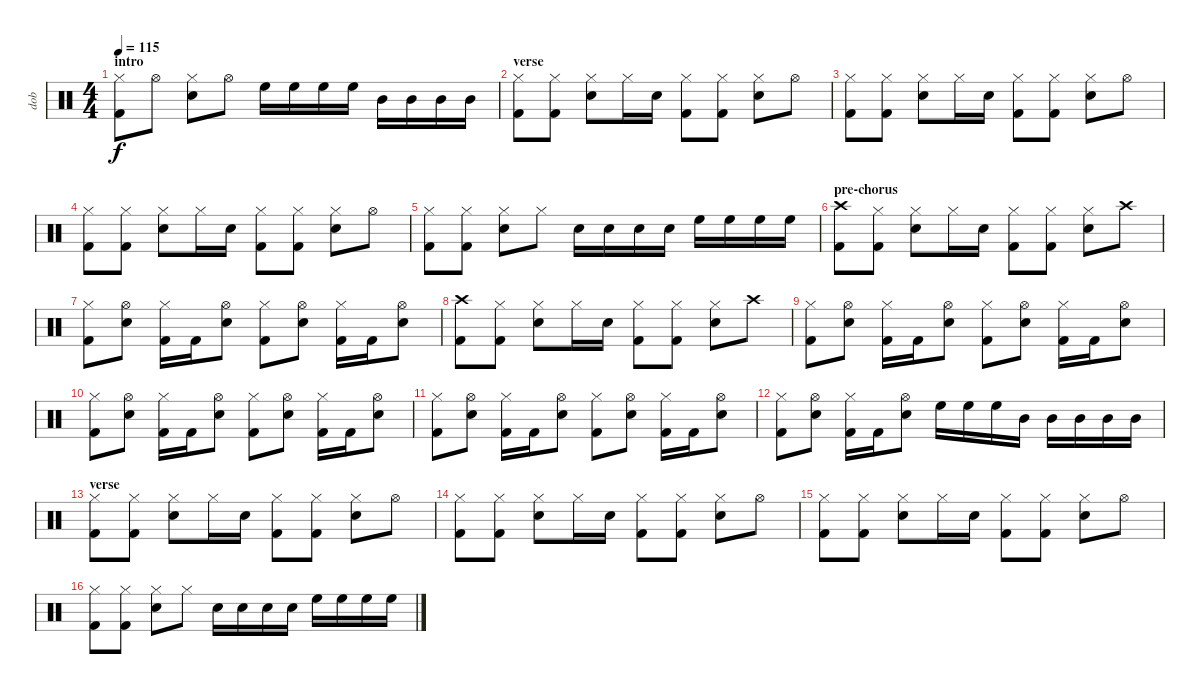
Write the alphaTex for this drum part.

\track ("dob" "dob") {instrument percussion}
\staff {score}
\articulation defaults
\ts (4 4)
\section ("" "intro")
\tempo 115
\clef neutral
\ks c
("Hi-Hat (closed)" "Kick (hit) 2").8{dy f} "Hi-Hat (open)".8 ("Hi-Hat (closed)" "Snare (hit) 2").8 "Hi-Hat (open)".8 "High Floor Tom (hit)".16 "High Floor Tom (hit)".16 "High Floor Tom (hit)".16 "High Floor Tom (hit)".16 "Mid Tom (hit)".16 "Mid Tom (hit)".16 "Mid Tom (hit)".16 "Mid Tom (hit)".16 |
\section ("" "verse")
("Hi-Hat (closed)" "Kick (hit) 2").8 ("Hi-Hat (closed)" "Kick (hit) 2").8 ("Hi-Hat (closed)" "Snare (hit) 2").8 "Hi-Hat (closed)".16 "Snare (hit) 2".16 ("Hi-Hat (closed)" "Kick (hit) 2").8 ("Hi-Hat (closed)" "Kick (hit) 2").8 ("Hi-Hat (closed)" "Snare (hit) 2").8 "Hi-Hat (open)".8 |
("Hi-Hat (closed)" "Kick (hit) 2").8 ("Hi-Hat (closed)" "Kick (hit) 2").8 ("Hi-Hat (closed)" "Snare (hit) 2").8 "Hi-Hat (closed)".16 "Snare (hit) 2".16 ("Hi-Hat (closed)" "Kick (hit) 2").8 ("Hi-Hat (closed)" "Kick (hit) 2").8 ("Hi-Hat (closed)" "Snare (hit) 2").8 "Hi-Hat (open)".8 |
("Hi-Hat (closed)" "Kick (hit) 2").8 ("Hi-Hat (closed)" "Kick (hit) 2").8 ("Hi-Hat (closed)" "Snare (hit) 2").8 "Hi-Hat (closed)".16 "Snare (hit) 2".16 ("Hi-Hat (closed)" "Kick (hit) 2").8 ("Hi-Hat (closed)" "Kick (hit) 2").8 ("Hi-Hat (closed)" "Snare (hit) 2").8 "Hi-Hat (open)".8 |
("Hi-Hat (closed)" "Kick (hit) 2").8 ("Hi-Hat (closed)" "Kick (hit) 2").8 ("Hi-Hat (closed)" "Snare (hit) 2").8 "Hi-Hat (closed)".8 "Snare (hit) 2".16 "Snare (hit) 2".16 "Snare (hit) 2".16 "Snare (hit) 2".16 "High Floor Tom (hit)".16 "High Floor Tom (hit)".16 "High Floor Tom (hit)".16 "High Floor Tom (hit)".16 |
\section ("" "pre-chorus")
("Crash high (hit)" "Kick (hit) 2").8 ("Hi-Hat (closed)" "Kick (hit) 2").8 ("Hi-Hat (closed)" "Snare (hit) 2").8 "Hi-Hat (closed)".16 "Snare (hit) 2".16 ("Hi-Hat (closed)" "Kick (hit) 2").8 ("Hi-Hat (closed)" "Kick (hit) 2").8 ("Hi-Hat (closed)" "Snare (hit) 2").8 "Crash high (hit)".8 |
("Hi-Hat (closed)" "Kick (hit) 2").8 ("Hi-Hat (open)" "Snare (hit) 2").8 ("Hi-Hat (closed)" "Kick (hit) 2").16 "Kick (hit) 2".16 ("Hi-Hat (open)" "Snare (hit) 2").8 ("Hi-Hat (closed)" "Kick (hit) 2").8 ("Hi-Hat (open)" "Snare (hit) 2").8 ("Hi-Hat (closed)" "Kick (hit) 2").16 "Kick (hit) 2".16 ("Hi-Hat (open)" "Snare (hit) 2").8 |
("Crash high (hit)" "Kick (hit) 2").8 ("Hi-Hat (closed)" "Kick (hit) 2").8 ("Hi-Hat (closed)" "Snare (hit) 2").8 "Hi-Hat (closed)".16 "Snare (hit) 2".16 ("Hi-Hat (closed)" "Kick (hit) 2").8 ("Hi-Hat (closed)" "Kick (hit) 2").8 ("Hi-Hat (closed)" "Snare (hit) 2").8 "Crash high (hit)".8 |
("Hi-Hat (closed)" "Kick (hit) 2").8 ("Hi-Hat (open)" "Snare (hit) 2").8 ("Hi-Hat (closed)" "Kick (hit) 2").16 "Kick (hit) 2".16 ("Hi-Hat (open)" "Snare (hit) 2").8 ("Hi-Hat (closed)" "Kick (hit) 2").8 ("Hi-Hat (open)" "Snare (hit) 2").8 ("Hi-Hat (closed)" "Kick (hit) 2").16 "Kick (hit) 2".16 ("Hi-Hat (open)" "Snare (hit) 2").8 |
("Hi-Hat (closed)" "Kick (hit) 2").8 ("Hi-Hat (open)" "Snare (hit) 2").8 ("Hi-Hat (closed)" "Kick (hit) 2").16 "Kick (hit) 2".16 ("Hi-Hat (open)" "Snare (hit) 2").8 ("Hi-Hat (closed)" "Kick (hit) 2").8 ("Hi-Hat (open)" "Snare (hit) 2").8 ("Hi-Hat (closed)" "Kick (hit) 2").16 "Kick (hit) 2".16 ("Hi-Hat (open)" "Snare (hit) 2").8 |
("Hi-Hat (closed)" "Kick (hit) 2").8 ("Hi-Hat (open)" "Snare (hit) 2").8 ("Hi-Hat (closed)" "Kick (hit) 2").16 "Kick (hit) 2".16 ("Hi-Hat (open)" "Snare (hit) 2").8 ("Hi-Hat (closed)" "Kick (hit) 2").8 ("Hi-Hat (open)" "Snare (hit) 2").8 ("Hi-Hat (closed)" "Kick (hit) 2").16 "Kick (hit) 2".16 ("Hi-Hat (open)" "Snare (hit) 2").8 |
("Hi-Hat (closed)" "Kick (hit) 2").8 ("Hi-Hat (open)" "Snare (hit) 2").8 ("Hi-Hat (closed)" "Kick (hit) 2").16 "Kick (hit) 2".16 ("Hi-Hat (open)" "Snare (hit) 2").8 "High Floor Tom (hit)".16 "High Floor Tom (hit)".16 "High Floor Tom (hit)".16 "Mid Tom (hit)".16 "Mid Tom (hit)".16 "Mid Tom (hit)".16 "Mid Tom (hit)".16 "Mid Tom (hit)".16 |
\section ("" "verse")
("Hi-Hat (closed)" "Kick (hit) 2").8 ("Hi-Hat (closed)" "Kick (hit) 2").8 ("Hi-Hat (closed)" "Snare (hit) 2").8 "Hi-Hat (closed)".16 "Snare (hit) 2".16 ("Hi-Hat (closed)" "Kick (hit) 2").8 ("Hi-Hat (closed)" "Kick (hit) 2").8 ("Hi-Hat (closed)" "Snare (hit) 2").8 "Hi-Hat (open)".8 |
("Hi-Hat (closed)" "Kick (hit) 2").8 ("Hi-Hat (closed)" "Kick (hit) 2").8 ("Hi-Hat (closed)" "Snare (hit) 2").8 "Hi-Hat (closed)".16 "Snare (hit) 2".16 ("Hi-Hat (closed)" "Kick (hit) 2").8 ("Hi-Hat (closed)" "Kick (hit) 2").8 ("Hi-Hat (closed)" "Snare (hit) 2").8 "Hi-Hat (open)".8 |
("Hi-Hat (closed)" "Kick (hit) 2").8 ("Hi-Hat (closed)" "Kick (hit) 2").8 ("Hi-Hat (closed)" "Snare (hit) 2").8 "Hi-Hat (closed)".16 "Snare (hit) 2".16 ("Hi-Hat (closed)" "Kick (hit) 2").8 ("Hi-Hat (closed)" "Kick (hit) 2").8 ("Hi-Hat (closed)" "Snare (hit) 2").8 "Hi-Hat (open)".8 |
("Hi-Hat (closed)" "Kick (hit) 2").8 ("Hi-Hat (closed)" "Kick (hit) 2").8 ("Hi-Hat (closed)" "Snare (hit) 2").8 "Hi-Hat (closed)".8 "Snare (hit) 2".16 "Snare (hit) 2".16 "Snare (hit) 2".16 "Snare (hit) 2".16 "High Floor Tom (hit)".16 "High Floor Tom (hit)".16 "High Floor Tom (hit)".16 "High Floor Tom (hit)".16
